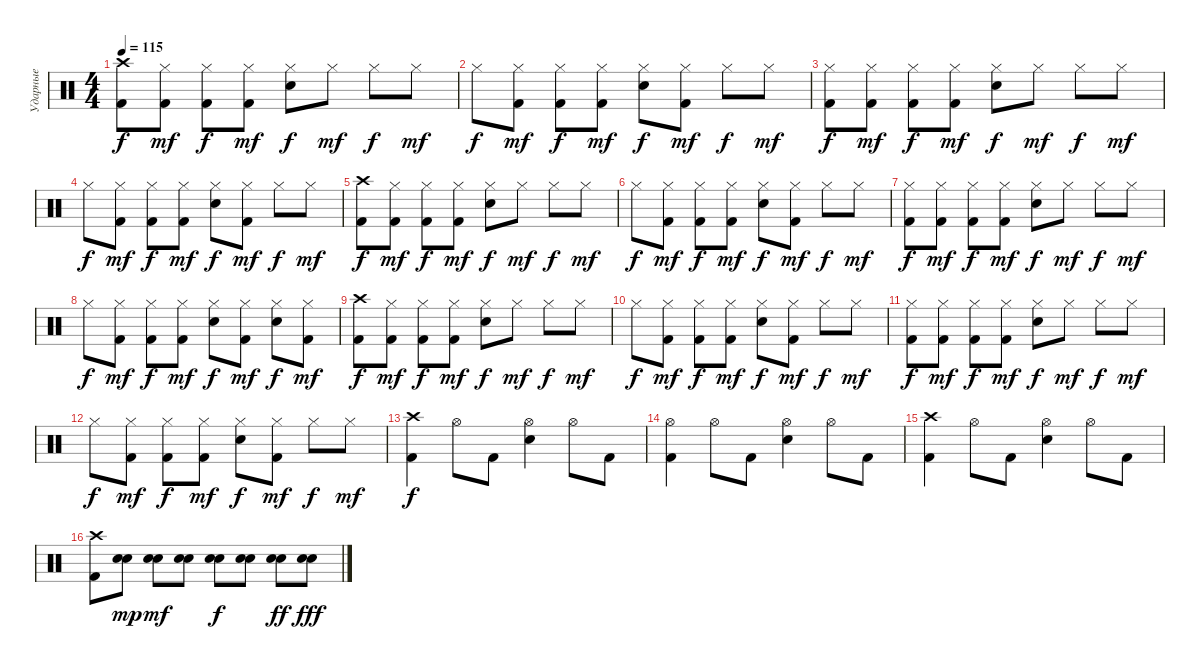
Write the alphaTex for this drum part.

\track ("Ударные" "Ударные") {instrument percussion}
\staff {score}
\articulation defaults
\ts (4 4)
\tempo 115
\clef neutral
\ks c
("Kick (hit) 2" "Crash high (hit)").8{dy f} ("Kick (hit) 2" "Hi-Hat (closed)").8{dy mf} ("Kick (hit) 2" "Hi-Hat (closed)").8{dy f} ("Kick (hit) 2" "Hi-Hat (closed)").8{dy mf} ("Snare (hit) 2" "Hi-Hat (closed)").8{dy f} "Hi-Hat (closed)".8{dy mf} "Hi-Hat (closed)".8{dy f} "Hi-Hat (closed)".8{dy mf} |
"Hi-Hat (closed)".8{dy f} ("Kick (hit) 2" "Hi-Hat (closed)").8{dy mf} ("Kick (hit) 2" "Hi-Hat (closed)").8{dy f} ("Kick (hit) 2" "Hi-Hat (closed)").8{dy mf} ("Snare (hit) 2" "Hi-Hat (closed)").8{dy f} ("Kick (hit) 2" "Hi-Hat (closed)").8{dy mf} "Hi-Hat (closed)".8{dy f} "Hi-Hat (closed)".8{dy mf} |
("Kick (hit) 2" "Hi-Hat (closed)").8{dy f} ("Kick (hit) 2" "Hi-Hat (closed)").8{dy mf} ("Kick (hit) 2" "Hi-Hat (closed)").8{dy f} ("Kick (hit) 2" "Hi-Hat (closed)").8{dy mf} ("Snare (hit) 2" "Hi-Hat (closed)").8{dy f} "Hi-Hat (closed)".8{dy mf} "Hi-Hat (closed)".8{dy f} "Hi-Hat (closed)".8{dy mf} |
"Hi-Hat (closed)".8{dy f} ("Kick (hit) 2" "Hi-Hat (closed)").8{dy mf} ("Kick (hit) 2" "Hi-Hat (closed)").8{dy f} ("Kick (hit) 2" "Hi-Hat (closed)").8{dy mf} ("Snare (hit) 2" "Hi-Hat (closed)").8{dy f} ("Kick (hit) 2" "Hi-Hat (closed)").8{dy mf} "Hi-Hat (closed)".8{dy f} "Hi-Hat (closed)".8{dy mf} |
("Kick (hit) 2" "Crash high (hit)").8{dy f} ("Kick (hit) 2" "Hi-Hat (closed)").8{dy mf} ("Kick (hit) 2" "Hi-Hat (closed)").8{dy f} ("Kick (hit) 2" "Hi-Hat (closed)").8{dy mf} ("Snare (hit) 2" "Hi-Hat (closed)").8{dy f} "Hi-Hat (closed)".8{dy mf} "Hi-Hat (closed)".8{dy f} "Hi-Hat (closed)".8{dy mf} |
"Hi-Hat (closed)".8{dy f} ("Kick (hit) 2" "Hi-Hat (closed)").8{dy mf} ("Kick (hit) 2" "Hi-Hat (closed)").8{dy f} ("Kick (hit) 2" "Hi-Hat (closed)").8{dy mf} ("Snare (hit) 2" "Hi-Hat (closed)").8{dy f} ("Kick (hit) 2" "Hi-Hat (closed)").8{dy mf} "Hi-Hat (closed)".8{dy f} "Hi-Hat (closed)".8{dy mf} |
("Kick (hit) 2" "Hi-Hat (closed)").8{dy f} ("Kick (hit) 2" "Hi-Hat (closed)").8{dy mf} ("Kick (hit) 2" "Hi-Hat (closed)").8{dy f} ("Kick (hit) 2" "Hi-Hat (closed)").8{dy mf} ("Snare (hit) 2" "Hi-Hat (closed)").8{dy f} "Hi-Hat (closed)".8{dy mf} "Hi-Hat (closed)".8{dy f} "Hi-Hat (closed)".8{dy mf} |
"Hi-Hat (closed)".8{dy f} ("Kick (hit) 2" "Hi-Hat (closed)").8{dy mf} ("Kick (hit) 2" "Hi-Hat (closed)").8{dy f} ("Kick (hit) 2" "Hi-Hat (closed)").8{dy mf} ("Snare (hit) 2" "Hi-Hat (closed)").8{dy f} ("Kick (hit) 2" "Hi-Hat (closed)").8{dy mf} ("Snare (hit) 2" "Hi-Hat (closed)").8{dy f} ("Kick (hit) 2" "Hi-Hat (closed)").8{dy mf} |
("Kick (hit) 2" "Crash high (hit)").8{dy f} ("Kick (hit) 2" "Hi-Hat (closed)").8{dy mf} ("Kick (hit) 2" "Hi-Hat (closed)").8{dy f} ("Kick (hit) 2" "Hi-Hat (closed)").8{dy mf} ("Snare (hit) 2" "Hi-Hat (closed)").8{dy f} "Hi-Hat (closed)".8{dy mf} "Hi-Hat (closed)".8{dy f} "Hi-Hat (closed)".8{dy mf} |
"Hi-Hat (closed)".8{dy f} ("Kick (hit) 2" "Hi-Hat (closed)").8{dy mf} ("Kick (hit) 2" "Hi-Hat (closed)").8{dy f} ("Kick (hit) 2" "Hi-Hat (closed)").8{dy mf} ("Snare (hit) 2" "Hi-Hat (closed)").8{dy f} ("Kick (hit) 2" "Hi-Hat (closed)").8{dy mf} "Hi-Hat (closed)".8{dy f} "Hi-Hat (closed)".8{dy mf} |
("Kick (hit) 2" "Hi-Hat (closed)").8{dy f} ("Kick (hit) 2" "Hi-Hat (closed)").8{dy mf} ("Kick (hit) 2" "Hi-Hat (closed)").8{dy f} ("Kick (hit) 2" "Hi-Hat (closed)").8{dy mf} ("Snare (hit) 2" "Hi-Hat (closed)").8{dy f} "Hi-Hat (closed)".8{dy mf} "Hi-Hat (closed)".8{dy f} "Hi-Hat (closed)".8{dy mf} |
"Hi-Hat (closed)".8{dy f} ("Kick (hit) 2" "Hi-Hat (closed)").8{dy mf} ("Kick (hit) 2" "Hi-Hat (closed)").8{dy f} ("Kick (hit) 2" "Hi-Hat (closed)").8{dy mf} ("Snare (hit) 2" "Hi-Hat (closed)").8{dy f} ("Kick (hit) 2" "Hi-Hat (closed)").8{dy mf} "Hi-Hat (closed)".8{dy f} "Hi-Hat (closed)".8{dy mf} |
("Kick (hit) 2" "Crash high (hit)").4{dy f} "Hi-Hat (open)".8 "Kick (hit) 2".8 ("Snare (hit) 2" "Hi-Hat (open)").4 "Hi-Hat (open)".8 "Kick (hit) 2".8 |
("Kick (hit) 2" "Hi-Hat (open)").4 "Hi-Hat (open)".8 "Kick (hit) 2".8 ("Snare (hit) 2" "Hi-Hat (open)").4 "Hi-Hat (open)".8 "Kick (hit) 2".8 |
("Kick (hit) 2" "Crash high (hit)").4 "Hi-Hat (open)".8 "Kick (hit) 2".8 ("Snare (hit) 2" "Hi-Hat (open)").4 "Hi-Hat (open)".8 "Kick (hit) 2".8 |
("Kick (hit) 2" "Crash high (hit)").8 ("Snare (hit) 2" "Snare (hit) 2").8{dy mp} ("Snare (hit) 2" "Snare (hit) 2").8{dy mf} ("Snare (hit) 2" "Snare (hit) 2").8 ("Snare (hit) 2" "Snare (hit) 2").8{dy f} ("Snare (hit) 2" "Snare (hit) 2").8 ("Snare (hit) 2" "Snare (hit) 2").8{dy ff} ("Snare (hit) 2" "Snare (hit) 2").8{dy fff}
